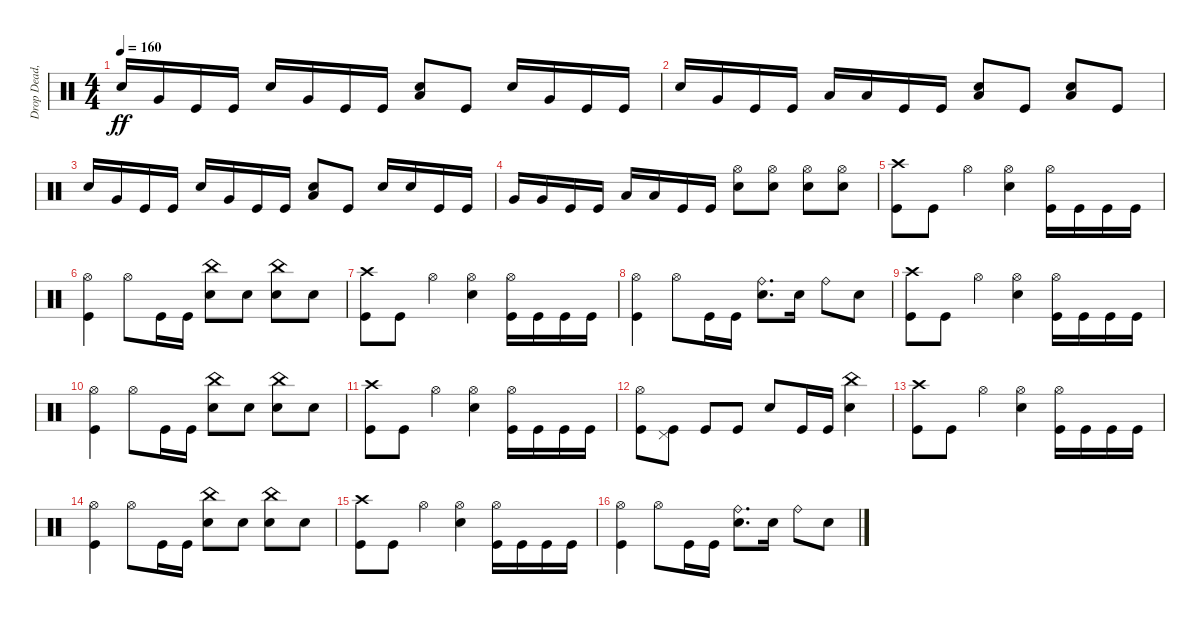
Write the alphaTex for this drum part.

\track ("Drop Dead, Johnny" "Drop Dead,") {instrument percussion}
\staff {score}
\articulation defaults
\ts (4 4)
\tempo 160
\clef neutral
\ks c "Electric Snare (hit)".16{dy ff} "Very Low Tom (hit)".16 "Kick (hit)".16 "Kick (hit)".16 "Electric Snare (hit)".16 "Very Low Tom (hit)".16 "Kick (hit)".16 "Kick (hit)".16
("Low Floor Tom (hit)" "Electric Snare (hit)").8 "Kick (hit)".8 "Electric Snare (hit)".16 "Very Low Tom (hit)".16 "Kick (hit)".16 "Kick (hit)".16 |
"Electric Snare (hit)".16 "Very Low Tom (hit)".16 "Kick (hit)".16 "Kick (hit)".16 "Low Floor Tom (hit)".16 "Low Floor Tom (hit)".16 "Kick (hit)".16 "Kick (hit)".16 ("Low Floor Tom (hit)" "Electric Snare (hit)").8 "Kick (hit)".8 ("Low Floor Tom (hit)" "Electric Snare (hit)").8 "Kick (hit)".8 |
"Electric Snare (hit)".16 "Very Low Tom (hit)".16 "Kick (hit)".16 "Kick (hit)".16 "Electric Snare (hit)".16 "Very Low Tom (hit)".16 "Kick (hit)".16 "Kick (hit)".16 ("Low Floor Tom (hit)" "Electric Snare (hit)").8 "Kick (hit)".8 "Electric Snare (hit)".16 "Electric Snare (hit)".16 "Kick (hit)".16 "Kick (hit)".16 |
"Very Low Tom (hit)".16 "Very Low Tom (hit)".16 "Kick (hit)".16 "Kick (hit)".16 "Low Floor Tom (hit)".16 "Low Floor Tom (hit)".16 "Kick (hit)".16 "Kick (hit)".16 ("Hi-Hat (open)" "Electric Snare (hit)").8 ("Hi-Hat (open)" "Electric Snare (hit)").8 ("Hi-Hat (open)" "Electric Snare (hit)").8 ("Hi-Hat (open)" "Electric Snare (hit)").8 |
("Crash high (hit)" "Kick (hit)").8 "Kick (hit)".8 "Hi-Hat (open)".4 ("Hi-Hat (open)" "Electric Snare (hit)").4 ("Hi-Hat (open)" "Kick (hit)").16 "Kick (hit)".16 "Kick (hit)".16 "Kick (hit)".16 |
("Hi-Hat (open)" "Kick (hit)").4 "Hi-Hat (open)".8 "Kick (hit)".16 "Kick (hit)".16 ("China (hit)" "Electric Snare (hit)").8 "Electric Snare (hit)".8 ("China (hit)" "Electric Snare (hit)").8 "Electric Snare (hit)".8 |
("Crash high (hit)" "Kick (hit)").8 "Kick (hit)".8 "Hi-Hat (open)".4 ("Hi-Hat (open)" "Electric Snare (hit)").4 ("Hi-Hat (open)" "Kick (hit)").16 "Kick (hit)".16 "Kick (hit)".16 "Kick (hit)".16 |
("Hi-Hat (open)" "Kick (hit)").4 "Hi-Hat (open)".8 "Kick (hit)".16 "Kick (hit)".16 ("Ride (bell)" "Electric Snare (hit)").8{d} "Electric Snare (hit)".16 "Ride (bell)".8 "Electric Snare (hit)".8 |
("Crash high (hit)" "Kick (hit)").8 "Kick (hit)".8 "Hi-Hat (open)".4 ("Hi-Hat (open)" "Electric Snare (hit)").4 ("Hi-Hat (open)" "Kick (hit)").16 "Kick (hit)".16 "Kick (hit)".16 "Kick (hit)".16 |
("Hi-Hat (open)" "Kick (hit)").4 "Hi-Hat (open)".8 "Kick (hit)".16 "Kick (hit)".16 ("China (hit)" "Electric Snare (hit)").8 "Electric Snare (hit)".8 ("China (hit)" "Electric Snare (hit)").8 "Electric Snare (hit)".8 |
("Crash high (hit)" "Kick (hit)").8 "Kick (hit)".8 "Hi-Hat (open)".4 ("Hi-Hat (open)" "Electric Snare (hit)").4 ("Hi-Hat (open)" "Kick (hit)").16 "Kick (hit)".16 "Kick (hit)".16 "Kick (hit)".16 |
("Hi-Hat (open)" "Kick (hit)").8 ("Pedal Hi-Hat (hit)" "Kick (hit)").8 "Kick (hit)".8 "Kick (hit)".8 "Electric Snare (hit)".8 "Kick (hit)".16 "Kick (hit)".16 ("China (hit)" "Electric Snare (hit)").4 |
("Crash high (hit)" "Kick (hit)").8 "Kick (hit)".8 "Hi-Hat (open)".4 ("Hi-Hat (open)" "Electric Snare (hit)").4 ("Hi-Hat (open)" "Kick (hit)").16 "Kick (hit)".16 "Kick (hit)".16 "Kick (hit)".16 |
("Hi-Hat (open)" "Kick (hit)").4 "Hi-Hat (open)".8 "Kick (hit)".16 "Kick (hit)".16 ("China (hit)" "Electric Snare (hit)").8 "Electric Snare (hit)".8 ("China (hit)" "Electric Snare (hit)").8 "Electric Snare (hit)".8 |
("Crash high (hit)" "Kick (hit)").8 "Kick (hit)".8 "Hi-Hat (open)".4 ("Hi-Hat (open)" "Electric Snare (hit)").4 ("Hi-Hat (open)" "Kick (hit)").16 "Kick (hit)".16 "Kick (hit)".16 "Kick (hit)".16 |
("Hi-Hat (open)" "Kick (hit)").4 "Hi-Hat (open)".8 "Kick (hit)".16 "Kick (hit)".16 ("Ride (bell)" "Electric Snare (hit)").8{d} "Electric Snare (hit)".16 "Ride (bell)".8 "Electric Snare (hit)".8
